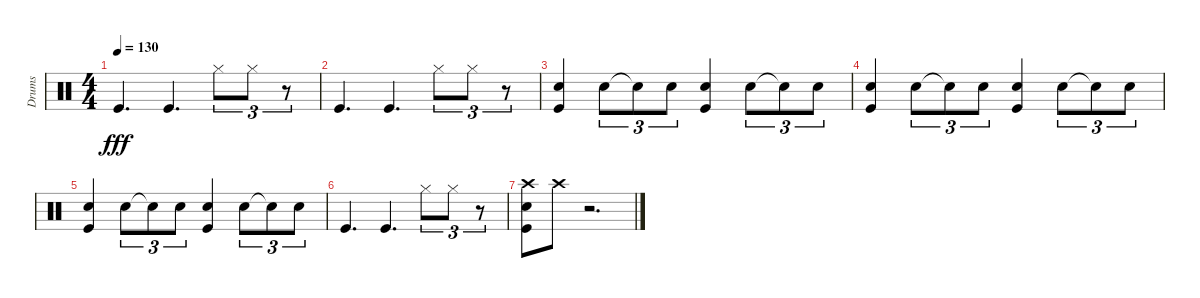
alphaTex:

\track ("Drums" "Drums") {instrument percussion}
\staff {score}
\articulation defaults
\ts (4 4)
\tempo 130
\clef neutral
\ks c "Kick (hit)".4{d dy fff} "Kick (hit)".4{d} "Hi-Hat (closed)".8{tu (3 2)} "Hi-Hat (closed)".8{tu (3 2)}
r.8{tu (3 2)} |
"Kick (hit)".4{d} "Kick (hit)".4{d} "Hi-Hat (closed)".8{tu (3 2)} "Hi-Hat (closed)".8{tu (3 2)} r.8{tu (3 2)} |
("Kick (hit)" "Snare (hit) 2").4 "Hand Clap (hit)".8{tu (3 2)} "Snare (hit)"{t}.8{tu (3 2)} "Snare (hit) 2".8{tu (3 2)} ("Kick (hit)" "Snare (hit) 2").4 "Hand Clap (hit)".8{tu (3 2)} "Snare (hit)"{t}.8{tu (3 2)} "Snare (hit) 2".8{tu (3 2)} |
("Kick (hit)" "Snare (hit) 2").4 "Hand Clap (hit)".8{tu (3 2)} "Snare (hit)"{t}.8{tu (3 2)} "Snare (hit) 2".8{tu (3 2)} ("Snare (hit) 2" "Kick (hit)").4 "Hand Clap (hit)".8{tu (3 2)} "Snare (hit)"{t}.8{tu (3 2)} "Snare (hit) 2".8{tu (3 2)} |
("Kick (hit)" "Snare (hit) 2").4 "Hand Clap (hit)".8{tu (3 2)} "Snare (hit)"{t}.8{tu (3 2)} "Snare (hit) 2".8{tu (3 2)} ("Kick (hit)" "Snare (hit) 2").4 "Hand Clap (hit)".8{tu (3 2)} "Snare (hit)"{t}.8{tu (3 2)} "Snare (hit) 2".8{tu (3 2)} |
"Kick (hit)".4{d} "Kick (hit)".4{d} "Hi-Hat (closed)".8{tu (3 2)} "Hi-Hat (closed)".8{tu (3 2)} r.8{tu (3 2)} |
("Hand Clap (hit)" "Kick (hit)" "Crash high (hit)").8 "Crash high (hit)".8 r.2{d}
